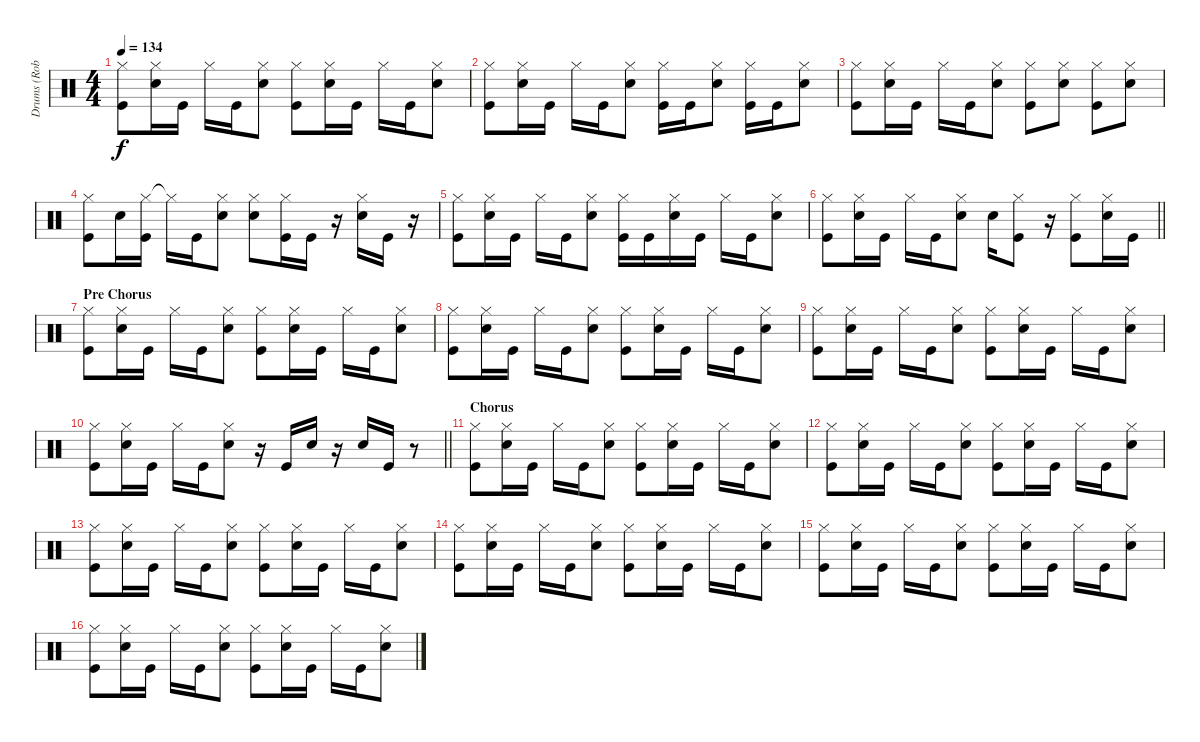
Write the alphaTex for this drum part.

\track ("Drums (Rob Affuso)" "Drums (Rob") {instrument percussion}
\staff {score}
\articulation defaults
\ts (4 4)
\tempo 134
\clef neutral
\ks c
("Hi-Hat (closed)" "Kick (hit)").8{dy f} ("Hi-Hat (closed)" "Snare (hit) 2").16 "Kick (hit)".16 "Hi-Hat (closed)".16 "Kick (hit)".16 ("Hi-Hat (closed)" "Snare (hit) 2").8 ("Hi-Hat (closed)" "Kick (hit)").8 ("Hi-Hat (closed)" "Snare (hit) 2").16 "Kick (hit)".16 "Hi-Hat (closed)".16 "Kick (hit)".16 ("Hi-Hat (closed)" "Snare (hit) 2").8 |
("Hi-Hat (closed)" "Kick (hit)").8 ("Hi-Hat (closed)" "Snare (hit) 2").16 "Kick (hit)".16 "Hi-Hat (closed)".16 "Kick (hit)".16 ("Hi-Hat (closed)" "Snare (hit) 2").8 ("Hi-Hat (closed)" "Kick (hit)").16 "Kick (hit)".16 ("Hi-Hat (closed)" "Snare (hit) 2").8 ("Hi-Hat (closed)" "Kick (hit)").16 "Kick (hit)".16 ("Hi-Hat (closed)" "Snare (hit) 2").8 |
("Hi-Hat (closed)" "Kick (hit)").8 ("Hi-Hat (closed)" "Snare (hit) 2").16 "Kick (hit)".16 "Hi-Hat (closed)".16 "Kick (hit)".16 ("Hi-Hat (closed)" "Snare (hit) 2").8 ("Hi-Hat (closed)" "Kick (hit)").8 ("Hi-Hat (closed)" "Snare (hit) 2").8 ("Hi-Hat (closed)" "Kick (hit)").8 ("Hi-Hat (closed)" "Snare (hit) 2").8 |
("Hi-Hat (closed)" "Kick (hit)").8 "Snare (hit) 2".16 ("Hi-Hat (closed)" "Kick (hit)").16 "Hi-Hat (closed)"{t}.16 "Kick (hit)".16 ("Hi-Hat (closed)" "Snare (hit) 2").8 ("Hi-Hat (closed)" "Snare (hit) 2").8 ("Hi-Hat (closed)" "Kick (hit)").16 "Kick (hit)".16 r.16 ("Hi-Hat (closed)" "Snare (hit) 2").16 "Kick (hit)".16 r.16 |
("Hi-Hat (closed)" "Kick (hit)").8 ("Hi-Hat (closed)" "Snare (hit) 2").16 "Kick (hit)".16 "Hi-Hat (closed)".16 "Kick (hit)".16 ("Hi-Hat (closed)" "Snare (hit) 2").8 ("Hi-Hat (closed)" "Kick (hit)").16 "Kick (hit)".16 ("Hi-Hat (closed)" "Snare (hit) 2").16 "Kick (hit)".16 "Hi-Hat (closed)".16 "Kick (hit)".16 ("Hi-Hat (closed)" "Snare (hit) 2").8 |
\barLineRight lightlight
("Hi-Hat (closed)" "Kick (hit)").8 ("Hi-Hat (closed)" "Snare (hit) 2").16 "Kick (hit)".16 "Hi-Hat (closed)".16 "Kick (hit)".16 ("Hi-Hat (closed)" "Snare (hit) 2").8 "Snare (hit) 2".16 ("Hi-Hat (closed)" "Kick (hit)").8 r.16 ("Hi-Hat (closed)" "Kick (hit)").8 ("Hi-Hat (closed)" "Snare (hit) 2").16 "Kick (hit)".16 |
\section ("" "Pre Chorus")
("Hi-Hat (closed)" "Kick (hit)").8 ("Hi-Hat (closed)" "Snare (hit) 2").16 "Kick (hit)".16 "Hi-Hat (closed)".16 "Kick (hit)".16 ("Hi-Hat (closed)" "Snare (hit) 2").8 ("Hi-Hat (closed)" "Kick (hit)").8 ("Hi-Hat (closed)" "Snare (hit) 2").16 "Kick (hit)".16 "Hi-Hat (closed)".16 "Kick (hit)".16 ("Hi-Hat (closed)" "Snare (hit) 2").8 |
("Hi-Hat (closed)" "Kick (hit)").8 ("Hi-Hat (closed)" "Snare (hit) 2").16 "Kick (hit)".16 "Hi-Hat (closed)".16 "Kick (hit)".16 ("Hi-Hat (closed)" "Snare (hit) 2").8 ("Hi-Hat (closed)" "Kick (hit)").8 ("Hi-Hat (closed)" "Snare (hit) 2").16 "Kick (hit)".16 "Hi-Hat (closed)".16 "Kick (hit)".16 ("Hi-Hat (closed)" "Snare (hit) 2").8 |
("Hi-Hat (closed)" "Kick (hit)").8 ("Hi-Hat (closed)" "Snare (hit) 2").16 "Kick (hit)".16 "Hi-Hat (closed)".16 "Kick (hit)".16 ("Hi-Hat (closed)" "Snare (hit) 2").8 ("Hi-Hat (closed)" "Kick (hit)").8 ("Hi-Hat (closed)" "Snare (hit) 2").16 "Kick (hit)".16 "Hi-Hat (closed)".16 "Kick (hit)".16 ("Hi-Hat (closed)" "Snare (hit) 2").8 |
\barLineRight lightlight
("Hi-Hat (closed)" "Kick (hit)").8 ("Hi-Hat (closed)" "Snare (hit) 2").16 "Kick (hit)".16 "Hi-Hat (closed)".16 "Kick (hit)".16 ("Hi-Hat (closed)" "Snare (hit) 2").8 r.16 "Kick (hit)".16 "Snare (hit) 2".16 r.16 "Snare (hit) 2".16 "Kick (hit)".16 r.8 |
\section ("" "Chorus")
("Hi-Hat (closed)" "Kick (hit)").8 ("Hi-Hat (closed)" "Snare (hit) 2").16 "Kick (hit)".16 "Hi-Hat (closed)".16 "Kick (hit)".16 ("Hi-Hat (closed)" "Snare (hit) 2").8 ("Hi-Hat (closed)" "Kick (hit)").8 ("Hi-Hat (closed)" "Snare (hit) 2").16 "Kick (hit)".16 "Hi-Hat (closed)".16 "Kick (hit)".16 ("Hi-Hat (closed)" "Snare (hit) 2").8 |
("Hi-Hat (closed)" "Kick (hit)").8 ("Hi-Hat (closed)" "Snare (hit) 2").16 "Kick (hit)".16 "Hi-Hat (closed)".16 "Kick (hit)".16 ("Hi-Hat (closed)" "Snare (hit) 2").8 ("Hi-Hat (closed)" "Kick (hit)").8 ("Hi-Hat (closed)" "Snare (hit) 2").16 "Kick (hit)".16 "Hi-Hat (closed)".16 "Kick (hit)".16 ("Hi-Hat (closed)" "Snare (hit) 2").8 |
("Hi-Hat (closed)" "Kick (hit)").8 ("Hi-Hat (closed)" "Snare (hit) 2").16 "Kick (hit)".16 "Hi-Hat (closed)".16 "Kick (hit)".16 ("Hi-Hat (closed)" "Snare (hit) 2").8 ("Hi-Hat (closed)" "Kick (hit)").8 ("Hi-Hat (closed)" "Snare (hit) 2").16 "Kick (hit)".16 "Hi-Hat (closed)".16 "Kick (hit)".16 ("Hi-Hat (closed)" "Snare (hit) 2").8 |
("Hi-Hat (closed)" "Kick (hit)").8 ("Hi-Hat (closed)" "Snare (hit) 2").16 "Kick (hit)".16 "Hi-Hat (closed)".16 "Kick (hit)".16 ("Hi-Hat (closed)" "Snare (hit) 2").8 ("Hi-Hat (closed)" "Kick (hit)").8 ("Hi-Hat (closed)" "Snare (hit) 2").16 "Kick (hit)".16 "Hi-Hat (closed)".16 "Kick (hit)".16 ("Hi-Hat (closed)" "Snare (hit) 2").8 |
("Hi-Hat (closed)" "Kick (hit)").8 ("Hi-Hat (closed)" "Snare (hit) 2").16 "Kick (hit)".16 "Hi-Hat (closed)".16 "Kick (hit)".16 ("Hi-Hat (closed)" "Snare (hit) 2").8 ("Hi-Hat (closed)" "Kick (hit)").8 ("Hi-Hat (closed)" "Snare (hit) 2").16 "Kick (hit)".16 "Hi-Hat (closed)".16 "Kick (hit)".16 ("Hi-Hat (closed)" "Snare (hit) 2").8 |
("Hi-Hat (closed)" "Kick (hit)").8 ("Hi-Hat (closed)" "Snare (hit) 2").16 "Kick (hit)".16 "Hi-Hat (closed)".16 "Kick (hit)".16 ("Hi-Hat (closed)" "Snare (hit) 2").8 ("Hi-Hat (closed)" "Kick (hit)").8 ("Hi-Hat (closed)" "Snare (hit) 2").16 "Kick (hit)".16 "Hi-Hat (closed)".16 "Kick (hit)".16 ("Hi-Hat (closed)" "Snare (hit) 2").8
